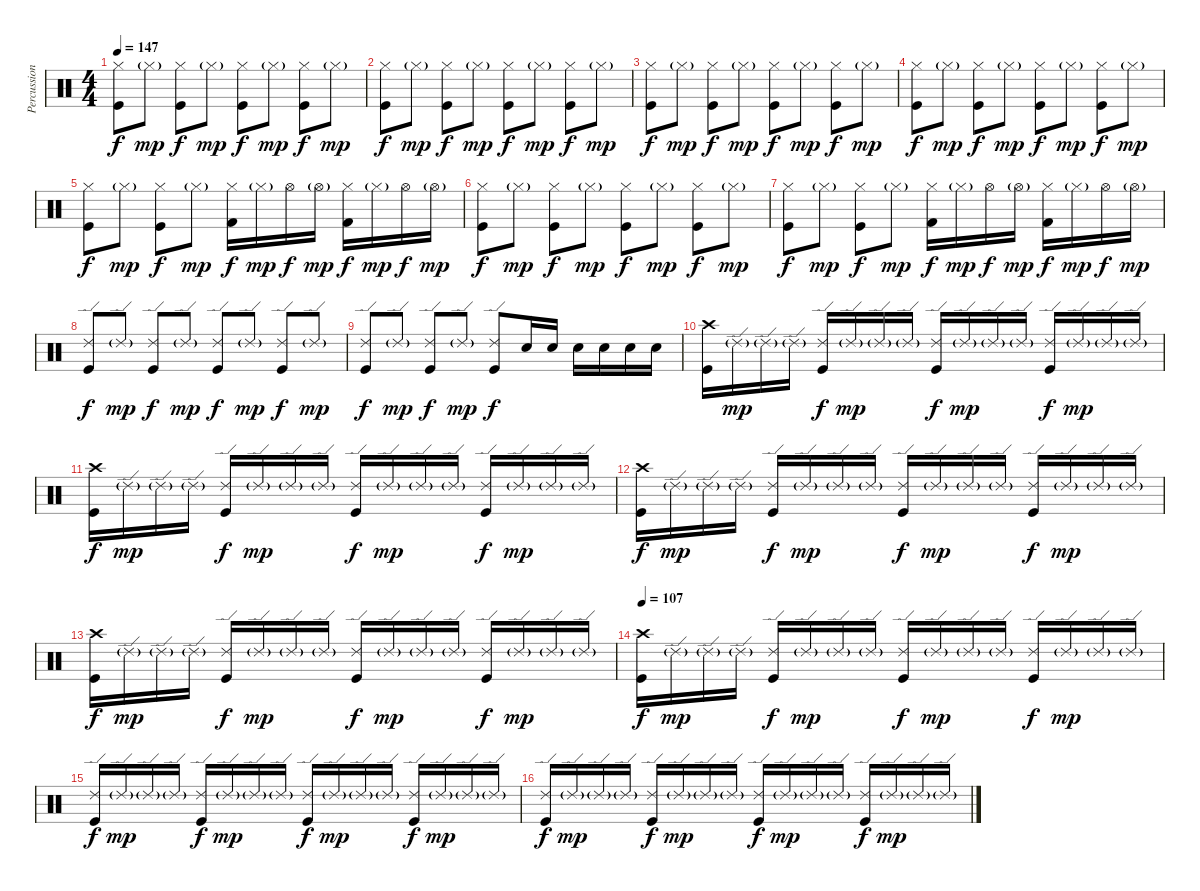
\track ("Percussion" "Percussion") {instrument percussion}
\staff {score}
\articulation defaults
\ts (4 4)
\tempo 147
\clef neutral
\ks c
("Hi-Hat (closed)" "Kick (hit)").8{dy f} "Hi-Hat (closed)"{g}.8{dy mp} ("Hi-Hat (closed)" "Kick (hit)").8{dy f} "Hi-Hat (closed)"{g}.8{dy mp} ("Hi-Hat (closed)" "Kick (hit)").8{dy f} "Hi-Hat (closed)"{g}.8{dy mp} ("Hi-Hat (closed)" "Kick (hit)").8{dy f} "Hi-Hat (closed)"{g}.8{dy mp} |
("Hi-Hat (closed)" "Kick (hit)").8{dy f} "Hi-Hat (closed)"{g}.8{dy mp} ("Hi-Hat (closed)" "Kick (hit)").8{dy f} "Hi-Hat (closed)"{g}.8{dy mp} ("Hi-Hat (closed)" "Kick (hit)").8{dy f} "Hi-Hat (closed)"{g}.8{dy mp} ("Hi-Hat (closed)" "Kick (hit)").8{dy f} "Hi-Hat (closed)"{g}.8{dy mp} |
("Hi-Hat (closed)" "Kick (hit)").8{dy f} "Hi-Hat (closed)"{g}.8{dy mp} ("Hi-Hat (closed)" "Kick (hit)").8{dy f} "Hi-Hat (closed)"{g}.8{dy mp} ("Hi-Hat (closed)" "Kick (hit)").8{dy f} "Hi-Hat (closed)"{g}.8{dy mp} ("Hi-Hat (closed)" "Kick (hit)").8{dy f} "Hi-Hat (closed)"{g}.8{dy mp} |
("Hi-Hat (closed)" "Kick (hit)").8{dy f} "Hi-Hat (closed)"{g}.8{dy mp} ("Hi-Hat (closed)" "Kick (hit)").8{dy f} "Hi-Hat (closed)"{g}.8{dy mp} ("Hi-Hat (closed)" "Kick (hit)").8{dy f} "Hi-Hat (closed)"{g}.8{dy mp} ("Hi-Hat (closed)" "Kick (hit)").8{dy f} "Hi-Hat (closed)"{g}.8{dy mp} |
("Hi-Hat (closed)" "Kick (hit)").8{dy f} "Hi-Hat (closed)"{g}.8{dy mp} ("Hi-Hat (closed)" "Kick (hit)").8{dy f} "Hi-Hat (closed)"{g}.8{dy mp} ("Hi-Hat (closed)" "Kick (hit) 2").16{dy f} "Hi-Hat (closed)"{g}.16{dy mp} "Hi-Hat (open)".16{dy f} "Hi-Hat (open)"{g}.16{dy mp} ("Hi-Hat (closed)" "Kick (hit) 2").16{dy f} "Hi-Hat (closed)"{g}.16{dy mp} "Hi-Hat (open)".16{dy f} "Hi-Hat (open)"{g}.16{dy mp} |
("Hi-Hat (closed)" "Kick (hit)").8{dy f} "Hi-Hat (closed)"{g}.8{dy mp} ("Hi-Hat (closed)" "Kick (hit)").8{dy f} "Hi-Hat (closed)"{g}.8{dy mp} ("Hi-Hat (closed)" "Kick (hit)").8{dy f} "Hi-Hat (closed)"{g}.8{dy mp} ("Hi-Hat (closed)" "Kick (hit)").8{dy f} "Hi-Hat (closed)"{g}.8{dy mp} |
("Hi-Hat (closed)" "Kick (hit)").8{dy f} "Hi-Hat (closed)"{g}.8{dy mp} ("Hi-Hat (closed)" "Kick (hit)").8{dy f} "Hi-Hat (closed)"{g}.8{dy mp} ("Hi-Hat (closed)" "Kick (hit) 2").16{dy f} "Hi-Hat (closed)"{g}.16{dy mp} "Hi-Hat (open)".16{dy f} "Hi-Hat (open)"{g}.16{dy mp} ("Hi-Hat (closed)" "Kick (hit) 2").16{dy f} "Hi-Hat (closed)"{g}.16{dy mp} "Hi-Hat (open)".16{dy f} "Hi-Hat (open)"{g}.16{dy mp} |
("Ride (edge) 2" "Kick (hit)").8{dy f} "Ride (edge) 2"{g}.8{dy mp} ("Ride (edge) 2" "Kick (hit)").8{dy f} "Ride (edge) 2"{g}.8{dy mp} ("Ride (edge) 2" "Kick (hit)").8{dy f} "Ride (edge) 2"{g}.8{dy mp} ("Ride (edge) 2" "Kick (hit)").8{dy f} "Ride (edge) 2"{g}.8{dy mp} |
("Ride (edge) 2" "Kick (hit)").8{dy f} "Ride (edge) 2"{g}.8{dy mp} ("Ride (edge) 2" "Kick (hit)").8{dy f} "Ride (edge) 2"{g}.8{dy mp} ("Ride (edge) 2" "Kick (hit)").8{dy f} "Snare (hit) 2".16 "Snare (hit) 2".16 "Snare (hit) 2".16 "Snare (hit) 2".16 "Snare (hit) 2".16 "Snare (hit) 2".16 |
("Crash high (hit)" "Kick (hit)").16 "Ride (edge) 2"{g}.16{dy mp} "Ride (edge) 2"{g}.16 "Ride (edge) 2"{g}.16 ("Ride (edge) 2" "Kick (hit)").16{dy f} "Ride (edge) 2"{g}.16{dy mp} "Ride (edge) 2"{g}.16 "Ride (edge) 2"{g}.16 ("Ride (edge) 2" "Kick (hit)").16{dy f} "Ride (edge) 2"{g}.16{dy mp} "Ride (edge) 2"{g}.16 "Ride (edge) 2"{g}.16 ("Ride (edge) 2" "Kick (hit)").16{dy f} "Ride (edge) 2"{g}.16{dy mp} "Ride (edge) 2"{g}.16 "Ride (edge) 2"{g}.16 |
("Crash high (hit)" "Kick (hit)").16{dy f} "Ride (edge) 2"{g}.16{dy mp} "Ride (edge) 2"{g}.16 "Ride (edge) 2"{g}.16 ("Ride (edge) 2" "Kick (hit)").16{dy f} "Ride (edge) 2"{g}.16{dy mp} "Ride (edge) 2"{g}.16 "Ride (edge) 2"{g}.16 ("Ride (edge) 2" "Kick (hit)").16{dy f} "Ride (edge) 2"{g}.16{dy mp} "Ride (edge) 2"{g}.16 "Ride (edge) 2"{g}.16 ("Ride (edge) 2" "Kick (hit)").16{dy f} "Ride (edge) 2"{g}.16{dy mp} "Ride (edge) 2"{g}.16 "Ride (edge) 2"{g}.16 |
("Crash high (hit)" "Kick (hit)").16{dy f} "Ride (edge) 2"{g}.16{dy mp} "Ride (edge) 2"{g}.16 "Ride (edge) 2"{g}.16 ("Ride (edge) 2" "Kick (hit)").16{dy f} "Ride (edge) 2"{g}.16{dy mp} "Ride (edge) 2"{g}.16 "Ride (edge) 2"{g}.16 ("Ride (edge) 2" "Kick (hit)").16{dy f} "Ride (edge) 2"{g}.16{dy mp} "Ride (edge) 2"{g}.16 "Ride (edge) 2"{g}.16 ("Ride (edge) 2" "Kick (hit)").16{dy f} "Ride (edge) 2"{g}.16{dy mp} "Ride (edge) 2"{g}.16 "Ride (edge) 2"{g}.16 |
("Crash high (hit)" "Kick (hit)").16{dy f} "Ride (edge) 2"{g}.16{dy mp} "Ride (edge) 2"{g}.16 "Ride (edge) 2"{g}.16 ("Ride (edge) 2" "Kick (hit)").16{dy f} "Ride (edge) 2"{g}.16{dy mp} "Ride (edge) 2"{g}.16 "Ride (edge) 2"{g}.16 ("Ride (edge) 2" "Kick (hit)").16{dy f} "Ride (edge) 2"{g}.16{dy mp} "Ride (edge) 2"{g}.16 "Ride (edge) 2"{g}.16 ("Ride (edge) 2" "Kick (hit)").16{dy f} "Ride (edge) 2"{g}.16{dy mp} "Ride (edge) 2"{g}.16 "Ride (edge) 2"{g}.16 |
\tempo 107
("Crash high (hit)" "Kick (hit)").16{dy f} "Ride (edge) 2"{g}.16{dy mp} "Ride (edge) 2"{g}.16 "Ride (edge) 2"{g}.16 ("Ride (edge) 2" "Kick (hit)").16{dy f} "Ride (edge) 2"{g}.16{dy mp} "Ride (edge) 2"{g}.16 "Ride (edge) 2"{g}.16 ("Ride (edge) 2" "Kick (hit)").16{dy f} "Ride (edge) 2"{g}.16{dy mp} "Ride (edge) 2"{g}.16 "Ride (edge) 2"{g}.16 ("Ride (edge) 2" "Kick (hit)").16{dy f} "Ride (edge) 2"{g}.16{dy mp} "Ride (edge) 2"{g}.16 "Ride (edge) 2"{g}.16 |
("Ride (edge) 2" "Kick (hit)").16{dy f} "Ride (edge) 2"{g}.16{dy mp} "Ride (edge) 2"{g}.16 "Ride (edge) 2"{g}.16 ("Ride (edge) 2" "Kick (hit)").16{dy f} "Ride (edge) 2"{g}.16{dy mp} "Ride (edge) 2"{g}.16 "Ride (edge) 2"{g}.16 ("Ride (edge) 2" "Kick (hit)").16{dy f} "Ride (edge) 2"{g}.16{dy mp} "Ride (edge) 2"{g}.16 "Ride (edge) 2"{g}.16 ("Ride (edge) 2" "Kick (hit)").16{dy f} "Ride (edge) 2"{g}.16{dy mp} "Ride (edge) 2"{g}.16 "Ride (edge) 2"{g}.16 |
("Ride (edge) 2" "Kick (hit)").16{dy f} "Ride (edge) 2"{g}.16{dy mp} "Ride (edge) 2"{g}.16 "Ride (edge) 2"{g}.16 ("Ride (edge) 2" "Kick (hit)").16{dy f} "Ride (edge) 2"{g}.16{dy mp} "Ride (edge) 2"{g}.16 "Ride (edge) 2"{g}.16 ("Ride (edge) 2" "Kick (hit)").16{dy f} "Ride (edge) 2"{g}.16{dy mp} "Ride (edge) 2"{g}.16 "Ride (edge) 2"{g}.16 ("Ride (edge) 2" "Kick (hit)").16{dy f} "Ride (edge) 2"{g}.16{dy mp} "Ride (edge) 2"{g}.16 "Ride (edge) 2"{g}.16
